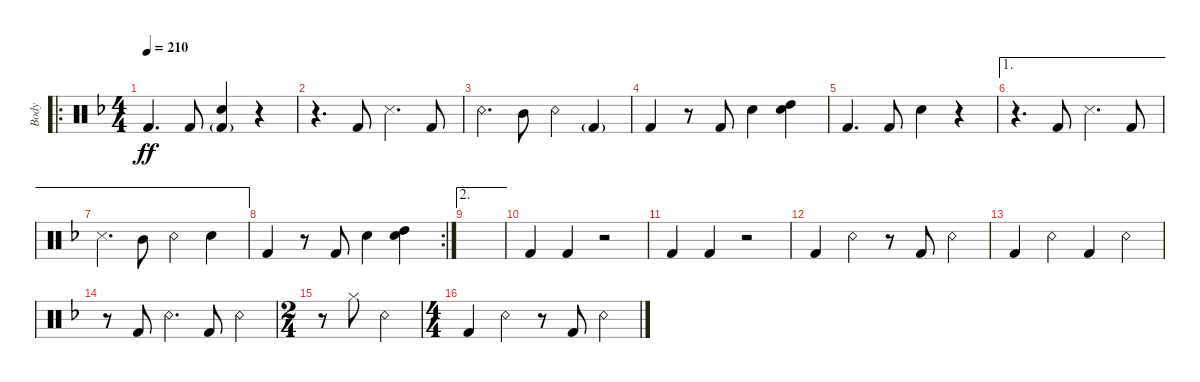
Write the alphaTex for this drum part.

\track ("Body" "Body") {instrument percussion}
\staff {score}
\articulation defaults
\ro
\ts (4 4)
\tempo 210
\clef neutral
\ks dminor "Kick (hit) 2".4{d dy ff} "Kick (hit) 2".8
("Snare (hit) 2" "Kick (hit) 2"{g}).4 r.4 |
r.4{d} "Kick (hit) 2".8 "Snare (side stick) 3".4{d} "Kick (hit) 2".8 |
"Snare (rim shot)".4{d} "Mid Tom (hit)".8 "Snare (rim shot)".4 "Kick (hit) 2"{g}.4 |
"Kick (hit) 2".4 r.8 "Kick (hit) 2".8 "Snare (hit) 2".4 ("High Tom (hit)" "Snare (hit) 2").4 |
"Kick (hit) 2".4{d} "Kick (hit) 2".8 "Snare (hit) 2".4 r.4 |
\ae 1
r.4{d} "Kick (hit) 2".8 "Snare (side stick) 3".4{d} "Kick (hit) 2".8 |
\ae 1 "Snare (side stick) 3".4{d} "Mid Tom (hit)".8 "Snare (rim shot)".4 "Snare (hit) 2".4
|
\rc 2 "Kick (hit) 2".4
r.8 "Kick (hit) 2".8 "Snare (hit) 2".4 ("High Tom (hit)" "Snare (hit) 2").4 |
\ae 2
|
"Kick (hit) 2".4 "Kick (hit) 2".4 r.2 |
"Kick (hit) 2".4 "Kick (hit) 2".4 r.2 |
"Kick (hit) 2".4 "Snare (rim shot)".4 r.8 "Kick (hit) 2".8 "Snare (rim shot)".4 |
"Kick (hit) 2".4 "Snare (rim shot)".4 "Kick (hit) 2".4 "Snare (rim shot)".4 |
r.8 "Kick (hit) 2".8 "Snare (rim shot)".4{d} "Kick (hit) 2".8 "Snare (rim shot)".4 |
\ts (2 4)
r.8 "Hi-Hat (closed)".8 "Snare (rim shot)".4 |
\ts (4 4)
"Kick (hit) 2".4 "Snare (rim shot)".4 r.8 "Kick (hit) 2".8 "Snare (rim shot)".4
